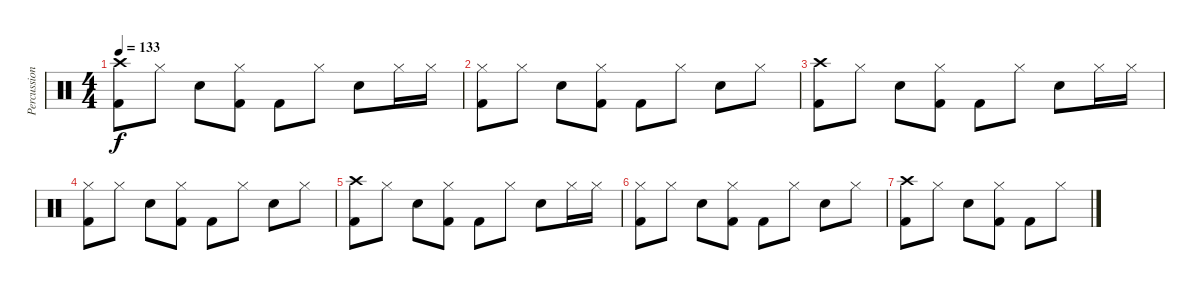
\track ("Percussions" "Percussion") {instrument percussion}
\staff {score}
\articulation defaults
\ts (4 4)
\tempo 133
\clef neutral
\ks c
("Crash high (hit)" "Kick (hit) 2").8{dy f} "Hi-Hat (closed)".8 "Snare (hit) 2".8 ("Hi-Hat (closed)" "Kick (hit) 2").8 "Kick (hit) 2".8 "Hi-Hat (closed)".8 "Snare (hit) 2".8 "Hi-Hat (closed)".16 "Hi-Hat (closed)".16 |
("Hi-Hat (closed)" "Kick (hit) 2").8 "Hi-Hat (closed)".8 "Snare (hit) 2".8 ("Hi-Hat (closed)" "Kick (hit) 2").8 "Kick (hit) 2".8 "Hi-Hat (closed)".8 "Snare (hit) 2".8 "Hi-Hat (closed)".8 |
("Crash high (hit)" "Kick (hit) 2").8{volume 7} "Hi-Hat (closed)".8 "Snare (hit) 2".8 ("Hi-Hat (closed)" "Kick (hit) 2").8 "Kick (hit) 2".8 "Hi-Hat (closed)".8 "Snare (hit) 2".8 "Hi-Hat (closed)".16 "Hi-Hat (closed)".16 |
("Hi-Hat (closed)" "Kick (hit) 2").8 "Hi-Hat (closed)".8 "Snare (hit) 2".8 ("Hi-Hat (closed)" "Kick (hit) 2").8 "Kick (hit) 2".8 "Hi-Hat (closed)".8 "Snare (hit) 2".8 "Hi-Hat (closed)".8 |
("Crash high (hit)" "Kick (hit) 2").8{volume 3} "Hi-Hat (closed)".8 "Snare (hit) 2".8 ("Hi-Hat (closed)" "Kick (hit) 2").8 "Kick (hit) 2".8 "Hi-Hat (closed)".8 "Snare (hit) 2".8 "Hi-Hat (closed)".16 "Hi-Hat (closed)".16 |
("Hi-Hat (closed)" "Kick (hit) 2").8 "Hi-Hat (closed)".8 "Snare (hit) 2".8 ("Hi-Hat (closed)" "Kick (hit) 2").8 "Kick (hit) 2".8 "Hi-Hat (closed)".8 "Snare (hit) 2".8 "Hi-Hat (closed)".8 |
("Crash high (hit)" "Kick (hit) 2").8{volume 0} "Hi-Hat (closed)".8 "Snare (hit) 2".8 ("Hi-Hat (closed)" "Kick (hit) 2").8 "Kick (hit) 2".8 "Hi-Hat (closed)".8
